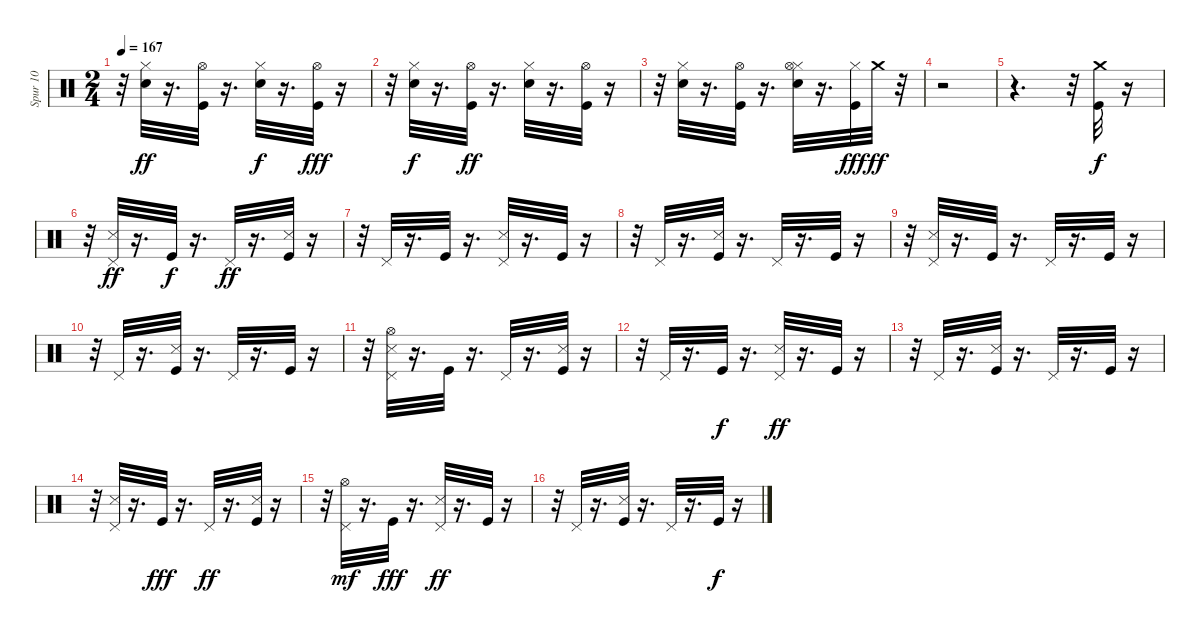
\track ("Spur 10" "Spur 10") {instrument percussion}
\staff {score}
\articulation defaults
\ts (2 4)
\tempo 167
\clef neutral
\ks c
r.32{dy ff} ("Hi-Hat (closed)" "Snare (hit) 2").32 r.16{d} ("Hi-Hat (open)" "Kick (hit)").32 r.16{d} ("Hi-Hat (closed)" "Snare (hit) 2").32{dy f} r.16{d} ("Kick (hit)" "Hi-Hat (open)").32{dy fff} r.16 |
r.32 ("Hi-Hat (closed)" "Snare (hit) 2").32{dy f} r.16{d} ("Kick (hit)" "Hi-Hat (open)").32{dy ff} r.16{d} ("Hi-Hat (closed)" "Snare (hit) 2").32 r.16{d} ("Kick (hit)" "Hi-Hat (open)").32 r.16 |
r.32 ("Hi-Hat (closed)" "Snare (hit) 2").32 r.16{d} ("Hi-Hat (open)" "Kick (hit)").32 r.16{d} ("Hi-Hat (closed)" "Snare (hit) 2" "Hi-Hat (open)").32 r.16{d} ("Kick (hit)" "Hi-Hat (closed)").32{dy fff} "Crash medium (hit)".32{dy ff} r.32 |
r.2 |
r.4{d} r.32 ("Kick (hit)" "Crash medium (hit)").32{dy f} r.16 |
r.32 ("Snare (side stick) 3" "Pedal Hi-Hat (hit)").32{dy ff} r.16{d} "Kick (hit)".32{dy f} r.16{d} "Pedal Hi-Hat (hit)".32{dy ff} r.16{d} ("Snare (side stick) 3" "Kick (hit)").32 r.16 |
r.32 "Pedal Hi-Hat (hit)".32 r.16{d} "Kick (hit)".32 r.16{d} ("Pedal Hi-Hat (hit)" "Snare (side stick) 3").32 r.16{d} "Kick (hit)".32 r.16 |
r.32 "Pedal Hi-Hat (hit)".32 r.16{d} ("Kick (hit)" "Snare (side stick) 3").32 r.16{d} "Pedal Hi-Hat (hit)".32 r.16{d} "Kick (hit)".32 r.16 |
r.32 ("Snare (side stick) 3" "Pedal Hi-Hat (hit)").32 r.16{d} "Kick (hit)".32 r.16{d} "Pedal Hi-Hat (hit)".32 r.16{d} "Kick (hit)".32 r.16 |
r.32 "Pedal Hi-Hat (hit)".32 r.16{d} ("Kick (hit)" "Snare (side stick) 3").32 r.16{d} "Pedal Hi-Hat (hit)".32 r.16{d} "Kick (hit)".32 r.16 |
r.32 ("Hi-Hat (open)" "Pedal Hi-Hat (hit)" "Snare (side stick) 3").32 r.16{d} "Kick (hit)".32 r.16{d} "Pedal Hi-Hat (hit)".32 r.16{d} ("Kick (hit)" "Snare (side stick) 3").32 r.16 |
r.32 "Pedal Hi-Hat (hit)".32 r.16{d} "Kick (hit)".32{dy f} r.16{d} ("Pedal Hi-Hat (hit)" "Snare (side stick) 3").32{dy ff} r.16{d} "Kick (hit)".32 r.16 |
r.32 "Pedal Hi-Hat (hit)".32 r.16{d} ("Kick (hit)" "Snare (side stick) 3").32 r.16{d} "Pedal Hi-Hat (hit)".32 r.16{d} "Kick (hit)".32 r.16 |
r.32 ("Pedal Hi-Hat (hit)" "Snare (side stick) 3").32 r.16{d} "Kick (hit)".32{dy fff} r.16{d} "Pedal Hi-Hat (hit)".32{dy ff} r.16{d} ("Kick (hit)" "Snare (side stick) 3").32 r.16 |
r.32 ("Pedal Hi-Hat (hit)" "Hi-Hat (open)").32{dy mf} r.16{d} "Kick (hit)".32{dy fff} r.16{d} ("Snare (side stick) 3" "Pedal Hi-Hat (hit)").32{dy ff} r.16{d} "Kick (hit)".32 r.16 |
r.32 "Pedal Hi-Hat (hit)".32 r.16{d} ("Kick (hit)" "Snare (side stick) 3").32 r.16{d} "Pedal Hi-Hat (hit)".32 r.16{d} "Kick (hit)".32{dy f} r.16
